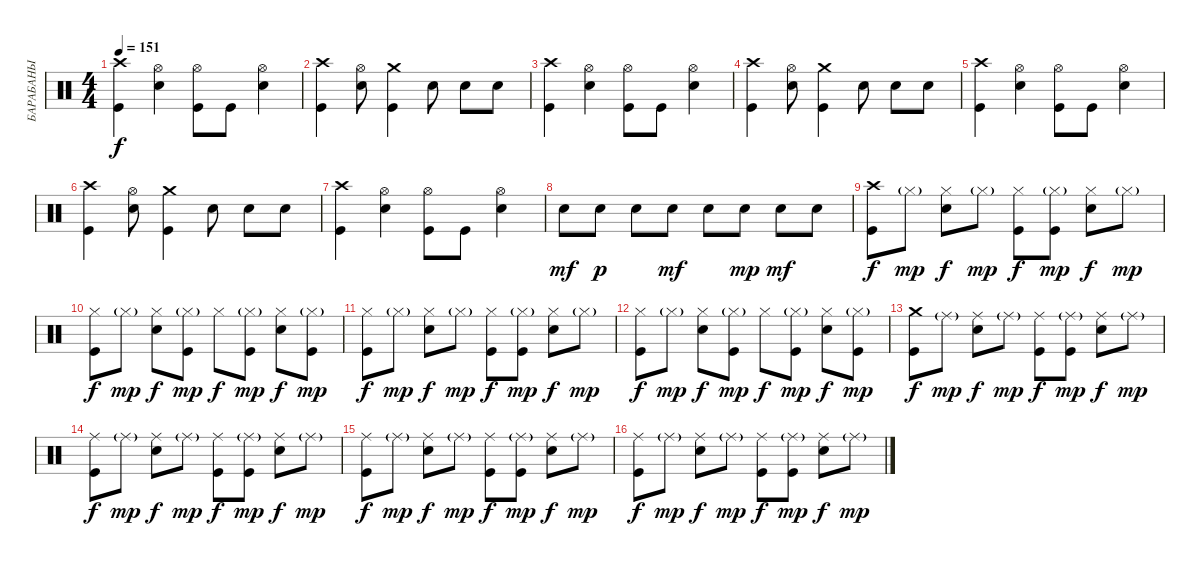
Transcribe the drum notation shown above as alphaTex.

\track ("БАРАБАНЫ" "БАРАБАНЫ") {instrument percussion}
\staff {score}
\articulation defaults
\ts (4 4)
\tempo 151
\clef neutral
\ks c
("Crash high (hit)" "Kick (hit)").4{dy f} ("Hi-Hat (open)" "Electric Snare (hit)").4 ("Hi-Hat (open)" "Kick (hit)").8 "Kick (hit)".8 ("Hi-Hat (open)" "Electric Snare (hit)").4 |
("Crash high (hit)" "Kick (hit)").4 ("Hi-Hat (open)" "Electric Snare (hit)").8 ("Crash medium (hit)" "Kick (hit)").4 "Electric Snare (hit)".8 "Electric Snare (hit)".8 "Electric Snare (hit)".8 |
("Crash high (hit)" "Kick (hit)").4 ("Hi-Hat (open)" "Electric Snare (hit)").4 ("Hi-Hat (open)" "Kick (hit)").8 "Kick (hit)".8 ("Hi-Hat (open)" "Electric Snare (hit)").4 |
("Crash high (hit)" "Kick (hit)").4 ("Hi-Hat (open)" "Electric Snare (hit)").8 ("Crash medium (hit)" "Kick (hit)").4 "Electric Snare (hit)".8 "Electric Snare (hit)".8 "Electric Snare (hit)".8 |
("Crash high (hit)" "Kick (hit)").4 ("Hi-Hat (open)" "Electric Snare (hit)").4 ("Hi-Hat (open)" "Kick (hit)").8 "Kick (hit)".8 ("Hi-Hat (open)" "Electric Snare (hit)").4 |
("Crash high (hit)" "Kick (hit)").4 ("Hi-Hat (open)" "Electric Snare (hit)").8 ("Crash medium (hit)" "Kick (hit)").4 "Electric Snare (hit)".8 "Electric Snare (hit)".8 "Electric Snare (hit)".8 |
("Crash high (hit)" "Kick (hit)").4 ("Hi-Hat (open)" "Electric Snare (hit)").4 ("Hi-Hat (open)" "Kick (hit)").8 "Kick (hit)".8 ("Hi-Hat (open)" "Electric Snare (hit)").4 |
"Electric Snare (hit)".8{dy mf} "Electric Snare (hit)".8{dy p} "Electric Snare (hit)".8 "Electric Snare (hit)".8{dy mf} "Electric Snare (hit)".8 "Electric Snare (hit)".8{dy mp} "Electric Snare (hit)".8{dy mf} "Electric Snare (hit)".8 |
("Crash high (hit)" "Kick (hit)").8{dy f} "Hi-Hat (closed)"{g}.8{dy mp} ("Hi-Hat (closed)" "Electric Snare (hit)").8{dy f} "Hi-Hat (closed)"{g}.8{dy mp} ("Hi-Hat (closed)" "Kick (hit)").8{dy f} ("Hi-Hat (closed)"{g} "Kick (hit)").8{dy mp} ("Hi-Hat (closed)" "Electric Snare (hit)").8{dy f} "Hi-Hat (closed)"{g}.8{dy mp} |
("Hi-Hat (closed)" "Kick (hit)").8{dy f} "Hi-Hat (closed)"{g}.8{dy mp} ("Hi-Hat (closed)" "Electric Snare (hit)").8{dy f} ("Hi-Hat (closed)"{g} "Kick (hit)").8{dy mp} "Hi-Hat (closed)".8{dy f} ("Hi-Hat (closed)"{g} "Kick (hit)").8{dy mp} ("Hi-Hat (closed)" "Electric Snare (hit)").8{dy f} ("Hi-Hat (closed)"{g} "Kick (hit)").8{dy mp} |
("Hi-Hat (closed)" "Kick (hit)").8{dy f} "Hi-Hat (closed)"{g}.8{dy mp} ("Hi-Hat (closed)" "Electric Snare (hit)").8{dy f} "Hi-Hat (closed)"{g}.8{dy mp} ("Hi-Hat (closed)" "Kick (hit)").8{dy f} ("Hi-Hat (closed)"{g} "Kick (hit)").8{dy mp} ("Hi-Hat (closed)" "Electric Snare (hit)").8{dy f} "Hi-Hat (closed)"{g}.8{dy mp} |
("Hi-Hat (closed)" "Kick (hit)").8{dy f} "Hi-Hat (closed)"{g}.8{dy mp} ("Hi-Hat (closed)" "Electric Snare (hit)").8{dy f} ("Hi-Hat (closed)"{g} "Kick (hit)").8{dy mp} "Hi-Hat (closed)".8{dy f} ("Hi-Hat (closed)"{g} "Kick (hit)").8{dy mp} ("Hi-Hat (closed)" "Electric Snare (hit)").8{dy f} ("Hi-Hat (closed)"{g} "Kick (hit)").8{dy mp} |
("Crash medium (hit)" "Kick (hit)").8{dy f} "Ride (middle)"{g}.8{dy mp} ("Ride (middle)" "Electric Snare (hit)").8{dy f} "Ride (middle)"{g}.8{dy mp} ("Ride (middle)" "Kick (hit)").8{dy f} ("Ride (middle)"{g} "Kick (hit)").8{dy mp} ("Ride (middle)" "Electric Snare (hit)").8{dy f} "Ride (middle)"{g}.8{dy mp} |
("Ride (middle)" "Kick (hit)").8{dy f} "Ride (middle)"{g}.8{dy mp} ("Ride (middle)" "Electric Snare (hit)").8{dy f} "Ride (middle)"{g}.8{dy mp} ("Ride (middle)" "Kick (hit)").8{dy f} ("Ride (middle)"{g} "Kick (hit)").8{dy mp} ("Ride (middle)" "Electric Snare (hit)").8{dy f} "Ride (middle)"{g}.8{dy mp} |
("Ride (middle)" "Kick (hit)").8{dy f} "Ride (middle)"{g}.8{dy mp} ("Ride (middle)" "Electric Snare (hit)").8{dy f} "Ride (middle)"{g}.8{dy mp} ("Ride (middle)" "Kick (hit)").8{dy f} ("Ride (middle)"{g} "Kick (hit)").8{dy mp} ("Ride (middle)" "Electric Snare (hit)").8{dy f} "Ride (middle)"{g}.8{dy mp} |
("Ride (middle)" "Kick (hit)").8{dy f} "Ride (middle)"{g}.8{dy mp} ("Ride (middle)" "Electric Snare (hit)").8{dy f} "Ride (middle)"{g}.8{dy mp} ("Ride (middle)" "Kick (hit)").8{dy f} ("Ride (middle)"{g} "Kick (hit)").8{dy mp} ("Ride (middle)" "Electric Snare (hit)").8{dy f} "Ride (middle)"{g}.8{dy mp}
